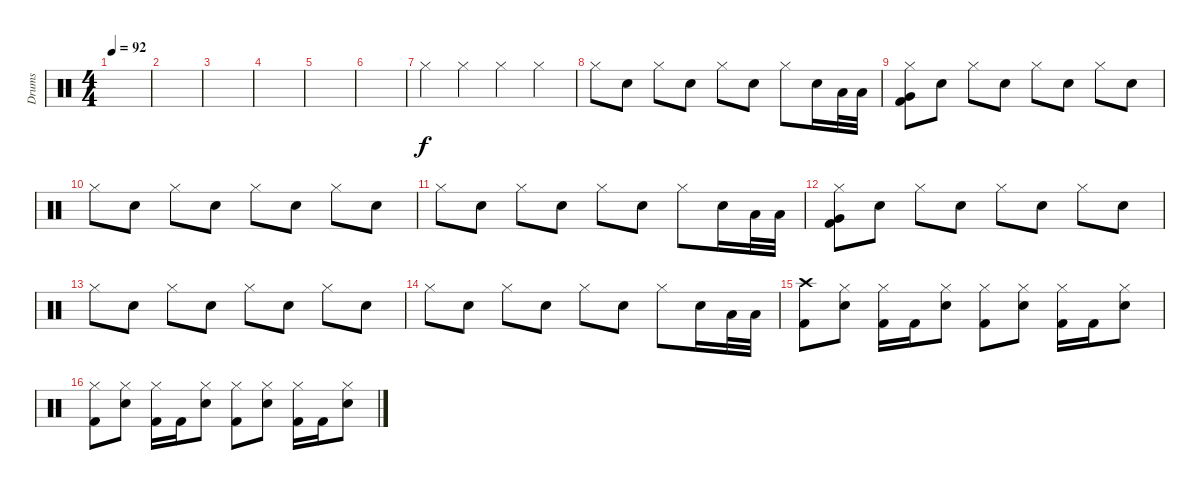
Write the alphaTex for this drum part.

\track ("Drums" "Drums") {instrument percussion}
\staff {score}
\articulation defaults
\ts (4 4)
\tempo 92
\clef neutral
\ks c
|
|
|
|
|
|
"Hi-Hat (closed)".4 "Hi-Hat (closed)".4 "Hi-Hat (closed)".4 "Hi-Hat (closed)".4 |
"Hi-Hat (closed)".8 "Snare (hit) 2".8 "Hi-Hat (closed)".8 "Snare (hit) 2".8 "Hi-Hat (closed)".8 "Snare (hit) 2".8 "Hi-Hat (closed)".8 "Snare (hit) 2".16 "Low Tom (hit)".32 "Low Tom (hit)".32 |
("Hi-Hat (closed)" "Very Low Tom (hit)" "Kick (hit) 2").8 "Snare (hit) 2".8 "Hi-Hat (closed)".8 "Snare (hit) 2".8 "Hi-Hat (closed)".8 "Snare (hit) 2".8 "Hi-Hat (closed)".8 "Snare (hit) 2".8 |
"Hi-Hat (closed)".8 "Snare (hit) 2".8 "Hi-Hat (closed)".8 "Snare (hit) 2".8 "Hi-Hat (closed)".8 "Snare (hit) 2".8 "Hi-Hat (closed)".8 "Snare (hit) 2".8 |
"Hi-Hat (closed)".8 "Snare (hit) 2".8 "Hi-Hat (closed)".8 "Snare (hit) 2".8 "Hi-Hat (closed)".8 "Snare (hit) 2".8 "Hi-Hat (closed)".8 "Snare (hit) 2".16 "Low Tom (hit)".32 "Low Tom (hit)".32 |
("Hi-Hat (closed)" "Very Low Tom (hit)" "Kick (hit) 2").8 "Snare (hit) 2".8 "Hi-Hat (closed)".8 "Snare (hit) 2".8 "Hi-Hat (closed)".8 "Snare (hit) 2".8 "Hi-Hat (closed)".8 "Snare (hit) 2".8 |
"Hi-Hat (closed)".8 "Snare (hit) 2".8 "Hi-Hat (closed)".8 "Snare (hit) 2".8 "Hi-Hat (closed)".8 "Snare (hit) 2".8 "Hi-Hat (closed)".8 "Snare (hit) 2".8 |
"Hi-Hat (closed)".8 "Snare (hit) 2".8 "Hi-Hat (closed)".8 "Snare (hit) 2".8 "Hi-Hat (closed)".8 "Snare (hit) 2".8 "Hi-Hat (closed)".8 "Snare (hit) 2".16 "Low Tom (hit)".32 "Low Tom (hit)".32 |
("Crash high (hit)" "Kick (hit) 2").8 ("Hi-Hat (closed)" "Snare (hit) 2").8 ("Hi-Hat (closed)" "Kick (hit) 2").16 "Kick (hit) 2".16 ("Hi-Hat (closed)" "Snare (hit) 2").8 ("Hi-Hat (closed)" "Kick (hit) 2").8 ("Hi-Hat (closed)" "Snare (hit) 2").8 ("Hi-Hat (closed)" "Kick (hit) 2").16 "Kick (hit) 2".16 ("Hi-Hat (closed)" "Snare (hit) 2").8 |
("Hi-Hat (closed)" "Kick (hit) 2").8 ("Hi-Hat (closed)" "Snare (hit) 2").8 ("Hi-Hat (closed)" "Kick (hit) 2").16 "Kick (hit) 2".16 ("Hi-Hat (closed)" "Snare (hit) 2").8 ("Hi-Hat (closed)" "Kick (hit) 2").8 ("Hi-Hat (closed)" "Snare (hit) 2").8 ("Hi-Hat (closed)" "Kick (hit) 2").16 "Kick (hit) 2".16 ("Hi-Hat (closed)" "Snare (hit) 2").8
